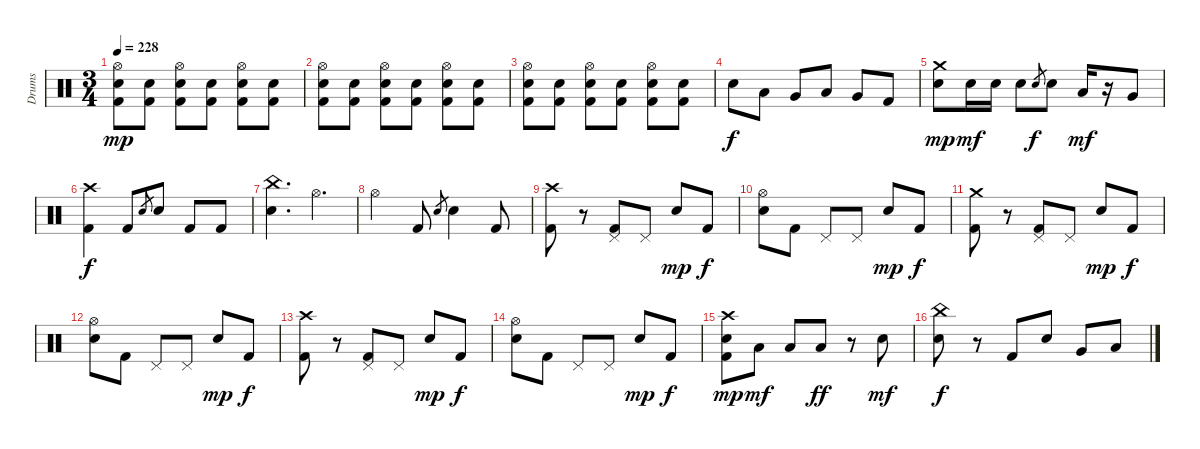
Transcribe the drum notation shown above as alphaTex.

\track ("Drums" "Drums") {instrument percussion}
\staff {score}
\articulation defaults
\ts (3 4)
\tempo 228
\clef neutral
\ks c
("Hi-Hat (open)" "Electric Snare (hit)" "Kick (hit) 2").8{dy mp} ("Electric Snare (hit)" "Kick (hit) 2").8 ("Hi-Hat (open)" "Electric Snare (hit)" "Kick (hit) 2").8 ("Electric Snare (hit)" "Kick (hit) 2").8 ("Hi-Hat (open)" "Electric Snare (hit)" "Kick (hit) 2").8 ("Electric Snare (hit)" "Kick (hit) 2").8 |
("Hi-Hat (open)" "Electric Snare (hit)" "Kick (hit) 2").8 ("Electric Snare (hit)" "Kick (hit) 2").8 ("Hi-Hat (open)" "Electric Snare (hit)" "Kick (hit) 2").8 ("Electric Snare (hit)" "Kick (hit) 2").8 ("Hi-Hat (open)" "Electric Snare (hit)" "Kick (hit) 2").8 ("Electric Snare (hit)" "Kick (hit) 2").8 |
("Hi-Hat (open)" "Electric Snare (hit)" "Kick (hit) 2").8 ("Electric Snare (hit)" "Kick (hit) 2").8 ("Hi-Hat (open)" "Electric Snare (hit)" "Kick (hit) 2").8 ("Electric Snare (hit)" "Kick (hit) 2").8 ("Hi-Hat (open)" "Electric Snare (hit)" "Kick (hit) 2").8 ("Electric Snare (hit)" "Kick (hit) 2").8 |
"Electric Snare (hit)".8{dy f} "Low Tom (hit)".8 "Very Low Tom (hit)".8 "Low Tom (hit)".8 "Very Low Tom (hit)".8 "Kick (hit) 2".8 |
("Crash medium (hit)" "Electric Snare (hit)").8{dy mp} "Electric Snare (hit)".16{dy mf} "Electric Snare (hit)".16 "Electric Snare (hit)".8 "Electric Snare (hit)".8{gr dy f} "Electric Snare (hit)".8 "Low Tom (hit)".16{dy mf} r.16 "Very Low Tom (hit)".8 |
("Crash high (hit)" "Kick (hit) 2").4{dy f} "Kick (hit) 2".8 "Electric Snare (hit)".8{gr} "Electric Snare (hit)".8 "Kick (hit) 2".8 "Kick (hit) 2".8 |
("China (hit)" "Electric Snare (hit)").4{d} "Hi-Hat (open)".4{d} |
"Hi-Hat (open)".4 "Kick (hit) 2".8 "Electric Snare (hit)".8{gr} "Electric Snare (hit)".4 "Kick (hit) 2".8 |
("Crash high (hit)" "Kick (hit) 2").8 r.8 ("Pedal Hi-Hat (hit)" "Kick (hit) 2").8 "Pedal Hi-Hat (hit)".8 "Electric Snare (hit)".8{dy mp} "Kick (hit) 2".8{dy f} |
("Hi-Hat (open)" "Electric Snare (hit)").8 "Kick (hit) 2".8 "Pedal Hi-Hat (hit)".8 "Pedal Hi-Hat (hit)".8 "Electric Snare (hit)".8{dy mp beam merge} "Kick (hit) 2".8{dy f} |
("Crash medium (hit)" "Kick (hit) 2").8 r.8 ("Pedal Hi-Hat (hit)" "Kick (hit) 2").8 "Pedal Hi-Hat (hit)".8 "Electric Snare (hit)".8{dy mp} "Kick (hit) 2".8{dy f} |
("Hi-Hat (open)" "Electric Snare (hit)").8 "Kick (hit) 2".8 "Pedal Hi-Hat (hit)".8 "Pedal Hi-Hat (hit)".8 "Electric Snare (hit)".8{dy mp beam merge} "Kick (hit) 2".8{dy f} |
("Crash high (hit)" "Kick (hit) 2").8 r.8 ("Pedal Hi-Hat (hit)" "Kick (hit) 2").8 "Pedal Hi-Hat (hit)".8 "Electric Snare (hit)".8{dy mp} "Kick (hit) 2".8{dy f} |
("Hi-Hat (open)" "Electric Snare (hit)").8 "Kick (hit) 2".8 "Pedal Hi-Hat (hit)".8 "Pedal Hi-Hat (hit)".8 "Electric Snare (hit)".8{dy mp beam merge} "Kick (hit) 2".8{dy f} |
("Crash high (hit)" "Electric Snare (hit)" "Kick (hit) 2").8{dy mp} "Low Tom (hit)".8{dy mf} "Low Tom (hit)".8 "Low Floor Tom (hit)".8{dy ff} r.8 "Electric Snare (hit)".8{dy mf} |
("China (hit)" "Electric Snare (hit)").8{dy f} r.8 "Kick (hit) 2".8 "Electric Snare (hit)".8 "Very Low Tom (hit)".8 "Low Floor Tom (hit)".8
